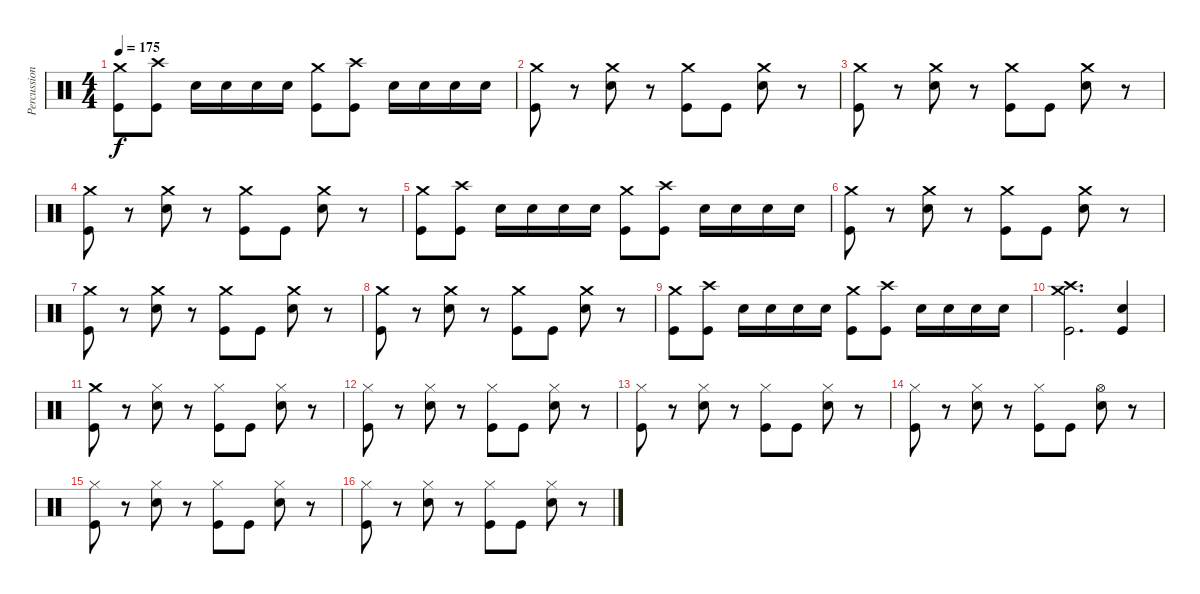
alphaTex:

\track ("Percussion" "Percussion") {instrument percussion}
\staff {score}
\articulation defaults
\ts (4 4)
\tempo 175
\clef neutral
\ks c
("Crash medium (hit)" "Kick (hit)").8{dy f} ("Crash high (hit)" "Kick (hit)").8 "Electric Snare (hit)".16 "Electric Snare (hit)".16 "Electric Snare (hit)".16 "Electric Snare (hit)".16 ("Crash medium (hit)" "Kick (hit)").8 ("Crash high (hit)" "Kick (hit)").8 "Electric Snare (hit)".16 "Electric Snare (hit)".16 "Electric Snare (hit)".16 "Electric Snare (hit)".16 |
("Crash medium (hit)" "Kick (hit)").8 r.8 ("Crash medium (hit)" "Electric Snare (hit)").8 r.8 ("Crash medium (hit)" "Kick (hit)").8 "Kick (hit)".8 ("Crash medium (hit)" "Electric Snare (hit)").8 r.8 |
("Crash medium (hit)" "Kick (hit)").8 r.8 ("Crash medium (hit)" "Electric Snare (hit)").8 r.8 ("Crash medium (hit)" "Kick (hit)").8 "Kick (hit)".8 ("Crash medium (hit)" "Electric Snare (hit)").8 r.8 |
("Crash medium (hit)" "Kick (hit)").8 r.8 ("Crash medium (hit)" "Electric Snare (hit)").8 r.8 ("Crash medium (hit)" "Kick (hit)").8 "Kick (hit)".8 ("Crash medium (hit)" "Electric Snare (hit)").8 r.8 |
("Crash medium (hit)" "Kick (hit)").8 ("Crash high (hit)" "Kick (hit)").8 "Electric Snare (hit)".16 "Electric Snare (hit)".16 "Electric Snare (hit)".16 "Electric Snare (hit)".16 ("Crash medium (hit)" "Kick (hit)").8 ("Crash high (hit)" "Kick (hit)").8 "Electric Snare (hit)".16 "Electric Snare (hit)".16 "Electric Snare (hit)".16 "Electric Snare (hit)".16 |
("Crash medium (hit)" "Kick (hit)").8 r.8 ("Crash medium (hit)" "Electric Snare (hit)").8 r.8 ("Crash medium (hit)" "Kick (hit)").8 "Kick (hit)".8 ("Crash medium (hit)" "Electric Snare (hit)").8 r.8 |
("Crash medium (hit)" "Kick (hit)").8 r.8 ("Crash medium (hit)" "Electric Snare (hit)").8 r.8 ("Crash medium (hit)" "Kick (hit)").8 "Kick (hit)".8 ("Crash medium (hit)" "Electric Snare (hit)").8 r.8 |
("Crash medium (hit)" "Kick (hit)").8 r.8 ("Crash medium (hit)" "Electric Snare (hit)").8 r.8 ("Crash medium (hit)" "Kick (hit)").8 "Kick (hit)".8 ("Crash medium (hit)" "Electric Snare (hit)").8 r.8 |
("Crash medium (hit)" "Kick (hit)").8 ("Crash high (hit)" "Kick (hit)").8 "Electric Snare (hit)".16 "Electric Snare (hit)".16 "Electric Snare (hit)".16 "Electric Snare (hit)".16 ("Crash medium (hit)" "Kick (hit)").8 ("Crash high (hit)" "Kick (hit)").8 "Electric Snare (hit)".16 "Electric Snare (hit)".16 "Electric Snare (hit)".16 "Electric Snare (hit)".16 |
("Crash high (hit)" "Crash medium (hit)" "Kick (hit)").2{d} ("Electric Snare (hit)" "Kick (hit)").4 |
("Crash medium (hit)" "Kick (hit)").8 r.8 ("Hi-Hat (closed)" "Electric Snare (hit)").8 r.8 ("Hi-Hat (closed)" "Kick (hit)").8 "Kick (hit)".8 ("Hi-Hat (closed)" "Electric Snare (hit)").8 r.8 |
("Hi-Hat (closed)" "Kick (hit)").8 r.8 ("Hi-Hat (closed)" "Electric Snare (hit)").8 r.8 ("Hi-Hat (closed)" "Kick (hit)").8 "Kick (hit)".8 ("Hi-Hat (closed)" "Electric Snare (hit)").8 r.8 |
("Hi-Hat (closed)" "Kick (hit)").8 r.8 ("Hi-Hat (closed)" "Electric Snare (hit)").8 r.8 ("Hi-Hat (closed)" "Kick (hit)").8 "Kick (hit)".8 ("Hi-Hat (closed)" "Electric Snare (hit)").8 r.8 |
("Hi-Hat (closed)" "Kick (hit)").8 r.8 ("Hi-Hat (closed)" "Electric Snare (hit)").8 r.8 ("Hi-Hat (closed)" "Kick (hit)").8 "Kick (hit)".8 ("Hi-Hat (open)" "Electric Snare (hit)").8 r.8 |
("Hi-Hat (closed)" "Kick (hit)").8 r.8 ("Hi-Hat (closed)" "Electric Snare (hit)").8 r.8 ("Hi-Hat (closed)" "Kick (hit)").8 "Kick (hit)".8 ("Hi-Hat (closed)" "Electric Snare (hit)").8 r.8 |
("Hi-Hat (closed)" "Kick (hit)").8 r.8 ("Hi-Hat (closed)" "Electric Snare (hit)").8 r.8 ("Hi-Hat (closed)" "Kick (hit)").8 "Kick (hit)".8 ("Hi-Hat (closed)" "Electric Snare (hit)").8 r.8
